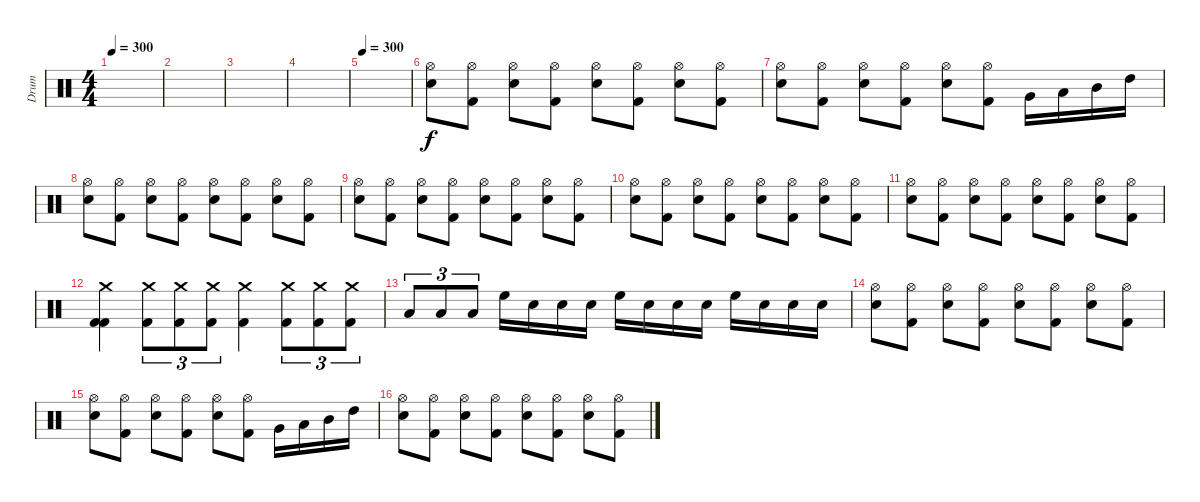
\track ("Drum" "Drum") {instrument percussion}
\staff {score}
\articulation defaults
\ts (4 4)
\tempo 300
\clef neutral
\ks c
|
|
|
|
\tempo 300
|
("Hi-Hat (open)" "Snare (hit) 2").8 ("Hi-Hat (open)" "Kick (hit) 2").8 ("Hi-Hat (open)" "Snare (hit) 2").8 ("Hi-Hat (open)" "Kick (hit) 2").8 ("Hi-Hat (open)" "Snare (hit) 2").8 ("Hi-Hat (open)" "Kick (hit) 2").8 ("Hi-Hat (open)" "Snare (hit) 2").8 ("Hi-Hat (open)" "Kick (hit) 2").8 |
("Hi-Hat (open)" "Snare (hit) 2").8 ("Hi-Hat (open)" "Kick (hit) 2").8 ("Hi-Hat (open)" "Snare (hit) 2").8 ("Hi-Hat (open)" "Kick (hit) 2").8 ("Hi-Hat (open)" "Snare (hit) 2").8 ("Hi-Hat (open)" "Kick (hit) 2").8 "Very Low Tom (hit)".16 "Low Tom (hit)".16 "Mid Tom (hit)".16 "High Tom (hit)".16 |
("Hi-Hat (open)" "Snare (hit) 2").8 ("Hi-Hat (open)" "Kick (hit) 2").8 ("Hi-Hat (open)" "Snare (hit) 2").8 ("Hi-Hat (open)" "Kick (hit) 2").8 ("Hi-Hat (open)" "Snare (hit) 2").8 ("Hi-Hat (open)" "Kick (hit) 2").8 ("Hi-Hat (open)" "Snare (hit) 2").8 ("Hi-Hat (open)" "Kick (hit) 2").8 |
("Hi-Hat (open)" "Snare (hit) 2").8 ("Hi-Hat (open)" "Kick (hit) 2").8 ("Hi-Hat (open)" "Snare (hit) 2").8 ("Hi-Hat (open)" "Kick (hit) 2").8 ("Hi-Hat (open)" "Snare (hit) 2").8 ("Hi-Hat (open)" "Kick (hit) 2").8 ("Hi-Hat (open)" "Snare (hit) 2").8 ("Hi-Hat (open)" "Kick (hit) 2").8 |
("Hi-Hat (open)" "Snare (hit) 2").8 ("Hi-Hat (open)" "Kick (hit) 2").8 ("Hi-Hat (open)" "Snare (hit) 2").8 ("Hi-Hat (open)" "Kick (hit) 2").8 ("Hi-Hat (open)" "Snare (hit) 2").8 ("Hi-Hat (open)" "Kick (hit) 2").8 ("Hi-Hat (open)" "Snare (hit) 2").8 ("Hi-Hat (open)" "Kick (hit) 2").8 |
("Hi-Hat (open)" "Snare (hit) 2").8 ("Hi-Hat (open)" "Kick (hit) 2").8 ("Hi-Hat (open)" "Snare (hit) 2").8 ("Hi-Hat (open)" "Kick (hit) 2").8 ("Hi-Hat (open)" "Snare (hit) 2").8 ("Hi-Hat (open)" "Kick (hit) 2").8 ("Hi-Hat (open)" "Snare (hit) 2").8 ("Hi-Hat (open)" "Kick (hit) 2").8 |
("Crash medium (hit)" "Kick (hit) 2" "Kick (hit) 2").4 ("Crash medium (hit)" "Kick (hit) 2").8{tu (3 2)} ("Crash medium (hit)" "Kick (hit) 2").8{tu (3 2)} ("Crash medium (hit)" "Kick (hit) 2").8{tu (3 2)} ("Crash medium (hit)" "Kick (hit) 2").4 ("Crash medium (hit)" "Kick (hit) 2").8{tu (3 2)} ("Crash medium (hit)" "Kick (hit) 2").8{tu (3 2)} ("Crash medium (hit)" "Kick (hit) 2").8{tu (3 2)} |
"Low Floor Tom (hit)".8{tu (3 2)} "Low Floor Tom (hit)".8{tu (3 2)} "Low Floor Tom (hit)".8{tu (3 2)} "High Floor Tom (hit)".16 "Snare (hit) 2".16 "Snare (hit) 2".16 "Snare (hit) 2".16 "High Floor Tom (hit)".16 "Snare (hit) 2".16 "Snare (hit) 2".16 "Snare (hit) 2".16 "High Floor Tom (hit)".16 "Snare (hit) 2".16 "Snare (hit) 2".16 "Snare (hit) 2".16 |
("Hi-Hat (open)" "Snare (hit) 2").8 ("Hi-Hat (open)" "Kick (hit) 2").8 ("Hi-Hat (open)" "Snare (hit) 2").8 ("Hi-Hat (open)" "Kick (hit) 2").8 ("Hi-Hat (open)" "Snare (hit) 2").8 ("Hi-Hat (open)" "Kick (hit) 2").8 ("Hi-Hat (open)" "Snare (hit) 2").8 ("Hi-Hat (open)" "Kick (hit) 2").8 |
("Hi-Hat (open)" "Snare (hit) 2").8 ("Hi-Hat (open)" "Kick (hit) 2").8 ("Hi-Hat (open)" "Snare (hit) 2").8 ("Hi-Hat (open)" "Kick (hit) 2").8 ("Hi-Hat (open)" "Snare (hit) 2").8 ("Hi-Hat (open)" "Kick (hit) 2").8 "Very Low Tom (hit)".16 "Low Tom (hit)".16 "Mid Tom (hit)".16 "High Tom (hit)".16 |
("Hi-Hat (open)" "Snare (hit) 2").8 ("Hi-Hat (open)" "Kick (hit) 2").8 ("Hi-Hat (open)" "Snare (hit) 2").8 ("Hi-Hat (open)" "Kick (hit) 2").8 ("Hi-Hat (open)" "Snare (hit) 2").8 ("Hi-Hat (open)" "Kick (hit) 2").8 ("Hi-Hat (open)" "Snare (hit) 2").8 ("Hi-Hat (open)" "Kick (hit) 2").8
